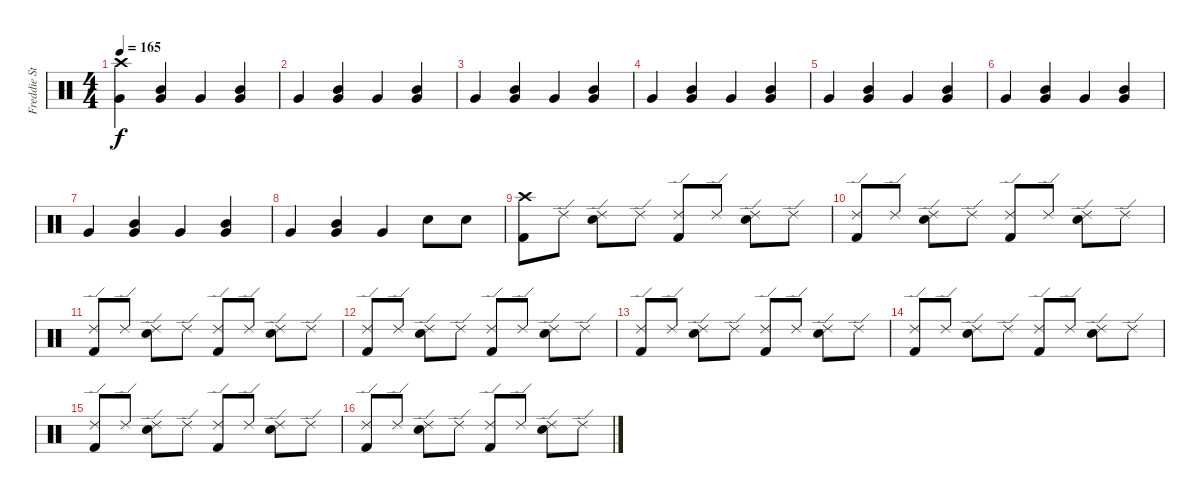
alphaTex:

\track ("Freddie Strauks" "Freddie St") {instrument percussion}
\staff {score}
\articulation defaults
\ts (4 4)
\tempo 165
\clef neutral
\ks c
("Crash high (hit)" "Very Low Tom (hit)").4{dy f volume 16} ("Very Low Tom (hit)" "Mid Tom (hit)").4 "Very Low Tom (hit)".4 ("Very Low Tom (hit)" "Mid Tom (hit)").4 |
"Very Low Tom (hit)".4 ("Very Low Tom (hit)" "Mid Tom (hit)").4 "Very Low Tom (hit)".4 ("Very Low Tom (hit)" "Mid Tom (hit)").4 |
"Very Low Tom (hit)".4 ("Very Low Tom (hit)" "Mid Tom (hit)").4 "Very Low Tom (hit)".4 ("Very Low Tom (hit)" "Mid Tom (hit)").4 |
"Very Low Tom (hit)".4 ("Very Low Tom (hit)" "Mid Tom (hit)").4 "Very Low Tom (hit)".4 ("Very Low Tom (hit)" "Mid Tom (hit)").4 |
"Very Low Tom (hit)".4 ("Very Low Tom (hit)" "Mid Tom (hit)").4 "Very Low Tom (hit)".4 ("Very Low Tom (hit)" "Mid Tom (hit)").4 |
"Very Low Tom (hit)".4 ("Very Low Tom (hit)" "Mid Tom (hit)").4 "Very Low Tom (hit)".4 ("Very Low Tom (hit)" "Mid Tom (hit)").4 |
"Very Low Tom (hit)".4 ("Very Low Tom (hit)" "Mid Tom (hit)").4 "Very Low Tom (hit)".4 ("Very Low Tom (hit)" "Mid Tom (hit)").4 |
"Very Low Tom (hit)".4 ("Very Low Tom (hit)" "Mid Tom (hit)").4 "Very Low Tom (hit)".4 "Snare (hit) 2".8 "Snare (hit) 2".8 |
("Crash high (hit)" "Kick (hit) 2").8{volume 13} "Ride (edge) 2".8 ("Ride (edge) 2" "Snare (hit) 2").8 "Ride (edge) 2".8 ("Ride (edge) 2" "Kick (hit) 2").8 "Ride (edge) 2".8 ("Ride (edge) 2" "Snare (hit) 2").8 "Ride (edge) 2".8 |
("Ride (edge) 2" "Kick (hit) 2").8 "Ride (edge) 2".8 ("Ride (edge) 2" "Snare (hit) 2").8 "Ride (edge) 2".8 ("Ride (edge) 2" "Kick (hit) 2").8 "Ride (edge) 2".8 ("Ride (edge) 2" "Snare (hit) 2").8 "Ride (edge) 2".8 |
("Ride (edge) 2" "Kick (hit) 2").8 "Ride (edge) 2".8 ("Ride (edge) 2" "Snare (hit) 2").8 "Ride (edge) 2".8 ("Ride (edge) 2" "Kick (hit) 2").8 "Ride (edge) 2".8 ("Ride (edge) 2" "Snare (hit) 2").8 "Ride (edge) 2".8 |
("Ride (edge) 2" "Kick (hit) 2").8 "Ride (edge) 2".8 ("Ride (edge) 2" "Snare (hit) 2").8 "Ride (edge) 2".8 ("Ride (edge) 2" "Kick (hit) 2").8 "Ride (edge) 2".8 ("Ride (edge) 2" "Snare (hit) 2").8 "Ride (edge) 2".8 |
("Ride (edge) 2" "Kick (hit) 2").8 "Ride (edge) 2".8 ("Ride (edge) 2" "Snare (hit) 2").8 "Ride (edge) 2".8 ("Ride (edge) 2" "Kick (hit) 2").8 "Ride (edge) 2".8 ("Ride (edge) 2" "Snare (hit) 2").8 "Ride (edge) 2".8 |
("Ride (edge) 2" "Kick (hit) 2").8 "Ride (edge) 2".8 ("Ride (edge) 2" "Snare (hit) 2").8 "Ride (edge) 2".8 ("Ride (edge) 2" "Kick (hit) 2").8 "Ride (edge) 2".8 ("Ride (edge) 2" "Snare (hit) 2").8 "Ride (edge) 2".8 |
("Ride (edge) 2" "Kick (hit) 2").8 "Ride (edge) 2".8 ("Ride (edge) 2" "Snare (hit) 2").8 "Ride (edge) 2".8 ("Ride (edge) 2" "Kick (hit) 2").8 "Ride (edge) 2".8 ("Ride (edge) 2" "Snare (hit) 2").8 "Ride (edge) 2".8 |
("Ride (edge) 2" "Kick (hit) 2").8 "Ride (edge) 2".8 ("Ride (edge) 2" "Snare (hit) 2").8 "Ride (edge) 2".8 ("Ride (edge) 2" "Kick (hit) 2").8 "Ride (edge) 2".8 ("Ride (edge) 2" "Snare (hit) 2").8 "Ride (edge) 2".8
